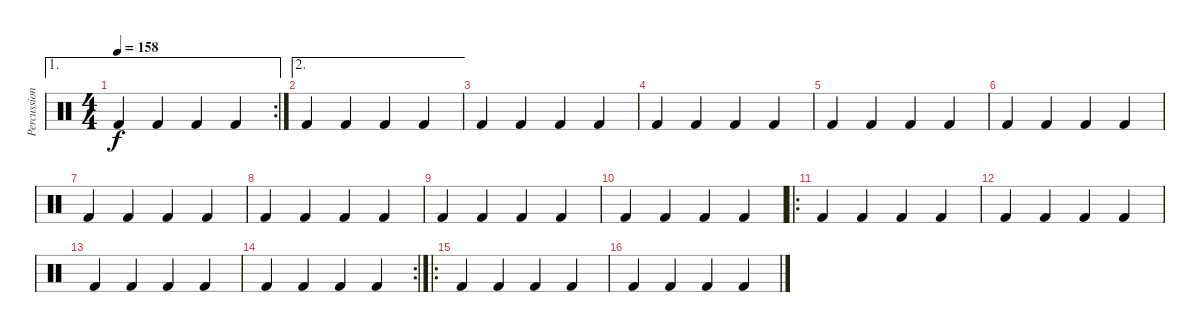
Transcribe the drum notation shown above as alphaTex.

\track ("Percussions" "Percussion") {instrument percussion}
\staff {score}
\articulation defaults
\ae 1
\rc 2
\ts (4 4)
\tempo 158
\clef neutral
\ks c "Kick (hit) 2".4{dy f} "Kick (hit) 2".4 "Kick (hit) 2".4 "Kick (hit) 2".4
|
\ae 2 "Kick (hit) 2".4 "Kick (hit) 2".4 "Kick (hit) 2".4 "Kick (hit) 2".4
|
"Kick (hit) 2".4 "Kick (hit) 2".4 "Kick (hit) 2".4 "Kick (hit) 2".4 |
"Kick (hit) 2".4 "Kick (hit) 2".4 "Kick (hit) 2".4 "Kick (hit) 2".4 |
"Kick (hit) 2".4 "Kick (hit) 2".4 "Kick (hit) 2".4 "Kick (hit) 2".4 |
"Kick (hit) 2".4 "Kick (hit) 2".4 "Kick (hit) 2".4 "Kick (hit) 2".4 |
"Kick (hit) 2".4 "Kick (hit) 2".4 "Kick (hit) 2".4 "Kick (hit) 2".4 |
"Kick (hit) 2".4 "Kick (hit) 2".4 "Kick (hit) 2".4 "Kick (hit) 2".4 |
"Kick (hit) 2".4 "Kick (hit) 2".4 "Kick (hit) 2".4 "Kick (hit) 2".4 |
"Kick (hit) 2".4 "Kick (hit) 2".4 "Kick (hit) 2".4 "Kick (hit) 2".4 |
\ro "Kick (hit) 2".4 "Kick (hit) 2".4 "Kick (hit) 2".4 "Kick (hit) 2".4
|
"Kick (hit) 2".4 "Kick (hit) 2".4 "Kick (hit) 2".4 "Kick (hit) 2".4 |
"Kick (hit) 2".4 "Kick (hit) 2".4 "Kick (hit) 2".4 "Kick (hit) 2".4 |
\rc 2 "Kick (hit) 2".4 "Kick (hit) 2".4 "Kick (hit) 2".4 "Kick (hit) 2".4
|
\ro "Kick (hit) 2".4 "Kick (hit) 2".4 "Kick (hit) 2".4 "Kick (hit) 2".4
|
"Kick (hit) 2".4 "Kick (hit) 2".4 "Kick (hit) 2".4 "Kick (hit) 2".4
